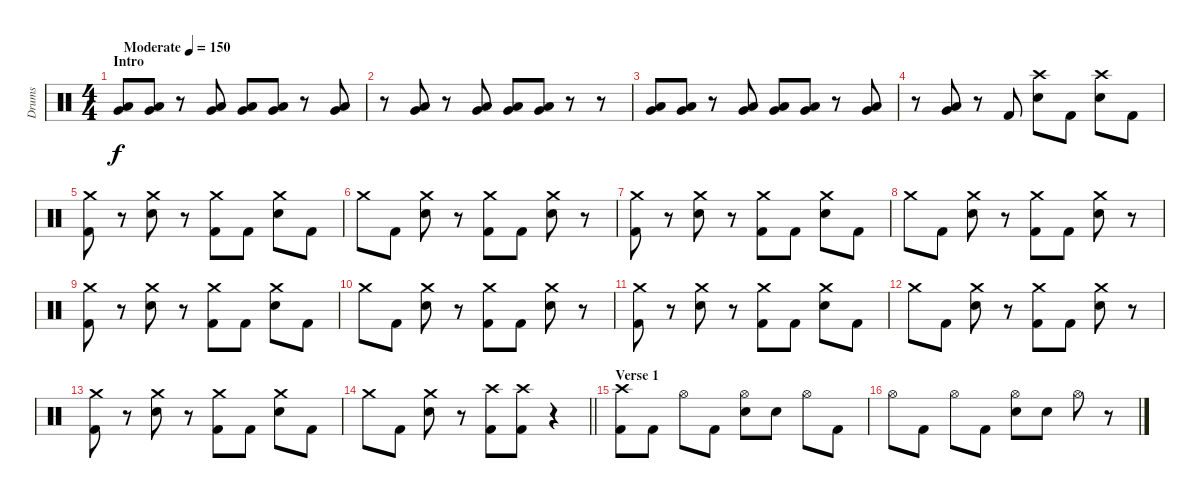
\track ("Drums" "Drums") {instrument percussion}
\staff {score}
\articulation defaults
\ts (4 4)
\section ("" "Intro")
\tempo (150 "Moderate")
\clef neutral
\ks c
("Very Low Tom (hit)" "Low Floor Tom (hit)").8{dy f} ("Very Low Tom (hit)" "Low Floor Tom (hit)").8 r.8 ("Very Low Tom (hit)" "Low Floor Tom (hit)").8 ("Very Low Tom (hit)" "Low Floor Tom (hit)").8 ("Very Low Tom (hit)" "Low Floor Tom (hit)").8 r.8 ("Very Low Tom (hit)" "Low Floor Tom (hit)").8 |
r.8 ("Very Low Tom (hit)" "Low Floor Tom (hit)").8 r.8 ("Very Low Tom (hit)" "Low Floor Tom (hit)").8 ("Very Low Tom (hit)" "Low Floor Tom (hit)").8 ("Very Low Tom (hit)" "Low Floor Tom (hit)").8 r.8 r.8 |
("Very Low Tom (hit)" "Low Floor Tom (hit)").8 ("Very Low Tom (hit)" "Low Floor Tom (hit)").8 r.8 ("Very Low Tom (hit)" "Low Floor Tom (hit)").8 ("Very Low Tom (hit)" "Low Floor Tom (hit)").8 ("Very Low Tom (hit)" "Low Floor Tom (hit)").8 r.8 ("Very Low Tom (hit)" "Low Floor Tom (hit)").8 |
r.8 ("Very Low Tom (hit)" "Low Floor Tom (hit)").8 r.8 "Kick (hit) 2".8 ("Crash high (hit)" "Electric Snare (hit)").8 "Kick (hit) 2".8 ("Crash high (hit)" "Electric Snare (hit)").8 "Kick (hit) 2".8 |
("Crash medium (hit)" "Kick (hit) 2").8 r.8 ("Crash medium (hit)" "Electric Snare (hit)").8 r.8 ("Crash medium (hit)" "Kick (hit) 2").8 "Kick (hit) 2".8 ("Crash medium (hit)" "Electric Snare (hit)").8 "Kick (hit) 2".8 |
"Crash medium (hit)".8 "Kick (hit) 2".8 ("Crash medium (hit)" "Electric Snare (hit)").8 r.8 ("Crash medium (hit)" "Kick (hit) 2").8 "Kick (hit) 2".8 ("Crash medium (hit)" "Electric Snare (hit)").8 r.8 |
("Crash medium (hit)" "Kick (hit) 2").8 r.8 ("Crash medium (hit)" "Electric Snare (hit)").8 r.8 ("Crash medium (hit)" "Kick (hit) 2").8 "Kick (hit) 2".8 ("Crash medium (hit)" "Electric Snare (hit)").8 "Kick (hit) 2".8 |
"Crash medium (hit)".8 "Kick (hit) 2".8 ("Crash medium (hit)" "Electric Snare (hit)").8 r.8 ("Crash medium (hit)" "Kick (hit) 2").8 "Kick (hit) 2".8 ("Crash medium (hit)" "Electric Snare (hit)").8 r.8 |
("Crash medium (hit)" "Kick (hit) 2").8 r.8 ("Crash medium (hit)" "Electric Snare (hit)").8 r.8 ("Crash medium (hit)" "Kick (hit) 2").8 "Kick (hit) 2".8 ("Crash medium (hit)" "Electric Snare (hit)").8 "Kick (hit) 2".8 |
"Crash medium (hit)".8 "Kick (hit) 2".8 ("Crash medium (hit)" "Electric Snare (hit)").8 r.8 ("Crash medium (hit)" "Kick (hit) 2").8 "Kick (hit) 2".8 ("Crash medium (hit)" "Electric Snare (hit)").8 r.8 |
("Crash medium (hit)" "Kick (hit) 2").8 r.8 ("Crash medium (hit)" "Electric Snare (hit)").8 r.8 ("Crash medium (hit)" "Kick (hit) 2").8 "Kick (hit) 2".8 ("Crash medium (hit)" "Electric Snare (hit)").8 "Kick (hit) 2".8 |
"Crash medium (hit)".8 "Kick (hit) 2".8 ("Crash medium (hit)" "Electric Snare (hit)").8 r.8 ("Crash medium (hit)" "Kick (hit) 2").8 "Kick (hit) 2".8 ("Crash medium (hit)" "Electric Snare (hit)").8 r.8 |
("Crash medium (hit)" "Kick (hit) 2").8 r.8 ("Crash medium (hit)" "Electric Snare (hit)").8 r.8 ("Crash medium (hit)" "Kick (hit) 2").8 "Kick (hit) 2".8 ("Crash medium (hit)" "Electric Snare (hit)").8 "Kick (hit) 2".8 |
\barLineRight lightlight "Crash medium (hit)".8 "Kick (hit) 2".8
("Crash medium (hit)" "Electric Snare (hit)").8 r.8 ("Crash high (hit)" "Kick (hit) 2").8 ("Crash high (hit)" "Kick (hit) 2").8 r.4 |
\section ("" "Verse 1")
("Crash high (hit)" "Kick (hit) 2").8 "Kick (hit) 2".8 "Hi-Hat (open)".8 "Kick (hit) 2".8 ("Hi-Hat (open)" "Electric Snare (hit)").8 "Electric Snare (hit)".8 "Hi-Hat (open)".8 "Kick (hit) 2".8 |
"Hi-Hat (open)".8 "Kick (hit) 2".8 "Hi-Hat (open)".8 "Kick (hit) 2".8 ("Hi-Hat (open)" "Electric Snare (hit)").8 "Electric Snare (hit)".8 "Hi-Hat (open)".8 r.8
